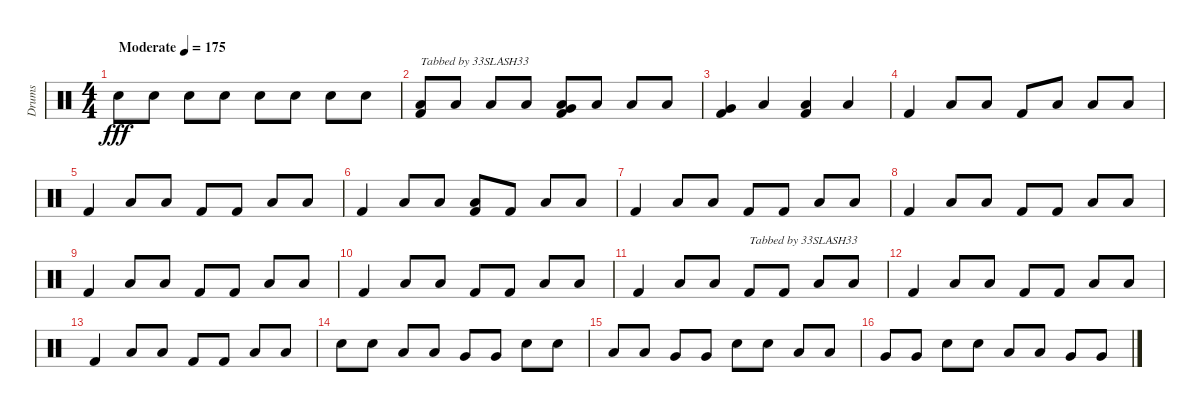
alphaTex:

\track ("Drums" "Drums") {instrument percussion}
\staff {score}
\articulation defaults
\ts (4 4)
\tempo (175 "Moderate")
\clef neutral
\ks c "Snare (hit) 2".8{dy fff} "Snare (hit) 2".8 "Snare (hit) 2".8 "Snare (hit) 2".8 "Snare (hit) 2".8 "Snare (hit) 2".8 "Snare (hit) 2".8 "Snare (hit) 2".8
|
("Low Tom (hit)" "Kick (hit) 2").8{txt "Tabbed by 33SLASH33"} "Low Tom (hit)".8 "Low Tom (hit)".8 "Low Tom (hit)".8 ("Very Low Tom (hit)" "Low Floor Tom (hit)" "Kick (hit) 2").8 "Low Tom (hit)".8 "Low Tom (hit)".8 "Low Tom (hit)".8 |
("Very Low Tom (hit)" "Kick (hit) 2").4 "Low Tom (hit)".4 ("Low Floor Tom (hit)" "Kick (hit) 2").4 "Low Tom (hit)".4 |
"Kick (hit) 2".4 "Low Tom (hit)".8 "Low Tom (hit)".8 "Kick (hit) 2".8 "Low Tom (hit)".8 "Low Tom (hit)".8 "Low Tom (hit)".8 |
"Kick (hit) 2".4 "Low Tom (hit)".8 "Low Tom (hit)".8 "Kick (hit) 2".8 "Kick (hit) 2".8 "Low Tom (hit)".8 "Low Tom (hit)".8 |
"Kick (hit) 2".4 "Low Tom (hit)".8 "Low Tom (hit)".8 ("Low Floor Tom (hit)" "Kick (hit) 2").8 "Kick (hit) 2".8 "Low Tom (hit)".8 "Low Tom (hit)".8 |
"Kick (hit) 2".4 "Low Tom (hit)".8 "Low Tom (hit)".8 "Kick (hit) 2".8 "Kick (hit) 2".8 "Low Tom (hit)".8 "Low Tom (hit)".8 |
"Kick (hit) 2".4 "Low Tom (hit)".8 "Low Tom (hit)".8 "Kick (hit) 2".8 "Kick (hit) 2".8 "Low Tom (hit)".8 "Low Tom (hit)".8 |
"Kick (hit) 2".4 "Low Tom (hit)".8 "Low Tom (hit)".8 "Kick (hit) 2".8 "Kick (hit) 2".8 "Low Tom (hit)".8 "Low Tom (hit)".8 |
"Kick (hit) 2".4 "Low Tom (hit)".8 "Low Tom (hit)".8 "Kick (hit) 2".8 "Kick (hit) 2".8 "Low Tom (hit)".8 "Low Tom (hit)".8 |
"Kick (hit) 2".4 "Low Tom (hit)".8 "Low Tom (hit)".8 "Kick (hit) 2".8{txt "Tabbed by 33SLASH33"} "Kick (hit) 2".8 "Low Tom (hit)".8 "Low Tom (hit)".8 |
"Kick (hit) 2".4 "Low Tom (hit)".8 "Low Tom (hit)".8 "Kick (hit) 2".8 "Kick (hit) 2".8 "Low Tom (hit)".8 "Low Tom (hit)".8 |
"Kick (hit) 2".4 "Low Tom (hit)".8 "Low Tom (hit)".8 "Kick (hit) 2".8 "Kick (hit) 2".8 "Low Tom (hit)".8 "Low Tom (hit)".8 |
"Snare (hit) 2".8 "Snare (hit) 2".8 "Low Tom (hit)".8 "Low Tom (hit)".8 "Very Low Tom (hit)".8 "Very Low Tom (hit)".8 "Snare (hit) 2".8 "Snare (hit) 2".8 |
"Low Tom (hit)".8 "Low Tom (hit)".8 "Very Low Tom (hit)".8 "Very Low Tom (hit)".8 "Snare (hit) 2".8 "Snare (hit) 2".8 "Low Tom (hit)".8 "Low Tom (hit)".8 |
"Very Low Tom (hit)".8 "Very Low Tom (hit)".8 "Snare (hit) 2".8 "Snare (hit) 2".8 "Low Tom (hit)".8 "Low Tom (hit)".8 "Very Low Tom (hit)".8 "Very Low Tom (hit)".8
